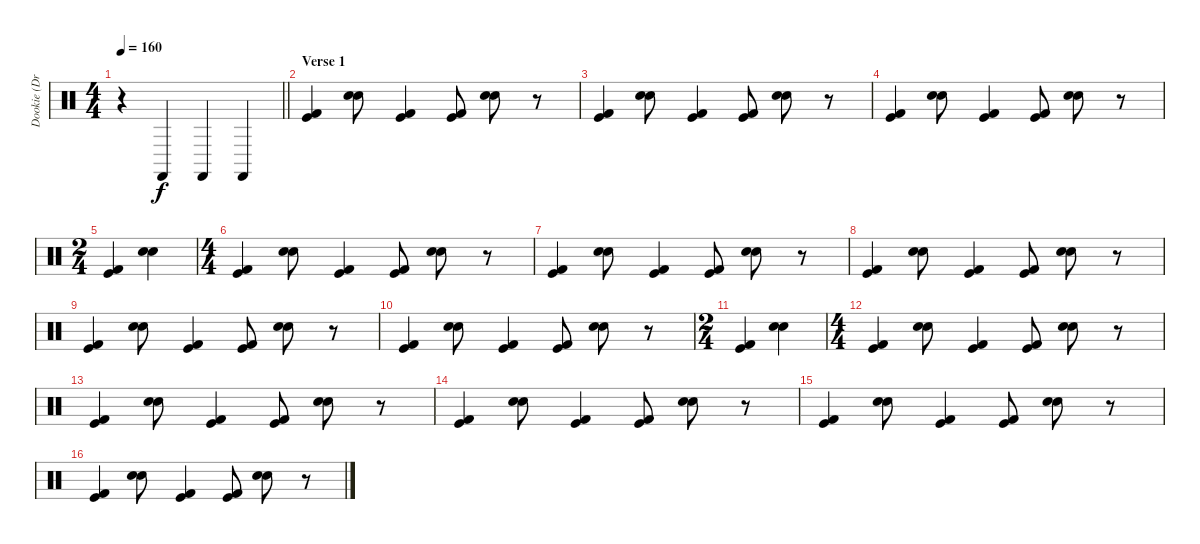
\track ("Dookie (Drums)" "Dookie (Dr") {instrument percussion}
\staff {score}
\articulation defaults
\ts (4 4)
\tempo 160
\clef neutral
\barLineRight lightlight
\ks c
r.4{dy f} "Castanets (hit)".4 "Castanets (hit)".4 "Castanets (hit)".4 |
\section ("" "Verse 1")
("Kick (hit) 2" "Kick (hit)").4 ("Electric Snare (hit)" "Electric Snare (hit)").8 ("Kick (hit) 2" "Kick (hit)").4 ("Kick (hit) 2" "Kick (hit)").8 ("Electric Snare (hit)" "Electric Snare (hit)").8 r.8 |
("Kick (hit) 2" "Kick (hit)").4 ("Electric Snare (hit)" "Electric Snare (hit)").8 ("Kick (hit) 2" "Kick (hit)").4 ("Kick (hit) 2" "Kick (hit)").8 ("Electric Snare (hit)" "Electric Snare (hit)").8 r.8 |
("Kick (hit) 2" "Kick (hit)").4 ("Electric Snare (hit)" "Electric Snare (hit)").8 ("Kick (hit) 2" "Kick (hit)").4 ("Kick (hit) 2" "Kick (hit)").8 ("Electric Snare (hit)" "Electric Snare (hit)").8 r.8 |
\ts (2 4)
("Kick (hit) 2" "Kick (hit)").4 ("Electric Snare (hit)" "Electric Snare (hit)").4 |
\ts (4 4)
("Kick (hit) 2" "Kick (hit)").4 ("Electric Snare (hit)" "Electric Snare (hit)").8 ("Kick (hit) 2" "Kick (hit)").4 ("Kick (hit) 2" "Kick (hit)").8 ("Electric Snare (hit)" "Electric Snare (hit)").8 r.8 |
("Kick (hit) 2" "Kick (hit)").4 ("Electric Snare (hit)" "Electric Snare (hit)").8 ("Kick (hit) 2" "Kick (hit)").4 ("Kick (hit) 2" "Kick (hit)").8 ("Electric Snare (hit)" "Electric Snare (hit)").8 r.8 |
("Kick (hit) 2" "Kick (hit)").4 ("Electric Snare (hit)" "Electric Snare (hit)").8 ("Kick (hit) 2" "Kick (hit)").4 ("Kick (hit) 2" "Kick (hit)").8 ("Electric Snare (hit)" "Electric Snare (hit)").8 r.8 |
("Kick (hit) 2" "Kick (hit)").4 ("Electric Snare (hit)" "Electric Snare (hit)").8 ("Kick (hit) 2" "Kick (hit)").4 ("Kick (hit) 2" "Kick (hit)").8 ("Electric Snare (hit)" "Electric Snare (hit)").8 r.8 |
("Kick (hit) 2" "Kick (hit)").4 ("Electric Snare (hit)" "Electric Snare (hit)").8 ("Kick (hit) 2" "Kick (hit)").4 ("Kick (hit) 2" "Kick (hit)").8 ("Electric Snare (hit)" "Electric Snare (hit)").8 r.8 |
\ts (2 4)
("Kick (hit) 2" "Kick (hit)").4 ("Electric Snare (hit)" "Electric Snare (hit)").4 |
\ts (4 4)
("Kick (hit) 2" "Kick (hit)").4 ("Electric Snare (hit)" "Electric Snare (hit)").8 ("Kick (hit) 2" "Kick (hit)").4 ("Kick (hit) 2" "Kick (hit)").8 ("Electric Snare (hit)" "Electric Snare (hit)").8 r.8 |
("Kick (hit) 2" "Kick (hit)").4 ("Electric Snare (hit)" "Electric Snare (hit)").8 ("Kick (hit) 2" "Kick (hit)").4 ("Kick (hit) 2" "Kick (hit)").8 ("Electric Snare (hit)" "Electric Snare (hit)").8 r.8 |
("Kick (hit) 2" "Kick (hit)").4 ("Electric Snare (hit)" "Electric Snare (hit)").8 ("Kick (hit) 2" "Kick (hit)").4 ("Kick (hit) 2" "Kick (hit)").8 ("Electric Snare (hit)" "Electric Snare (hit)").8 r.8 |
("Kick (hit) 2" "Kick (hit)").4 ("Electric Snare (hit)" "Electric Snare (hit)").8 ("Kick (hit) 2" "Kick (hit)").4 ("Kick (hit) 2" "Kick (hit)").8 ("Electric Snare (hit)" "Electric Snare (hit)").8 r.8 |
("Kick (hit) 2" "Kick (hit)").4 ("Electric Snare (hit)" "Electric Snare (hit)").8 ("Kick (hit) 2" "Kick (hit)").4 ("Kick (hit) 2" "Kick (hit)").8 ("Electric Snare (hit)" "Electric Snare (hit)").8 r.8
